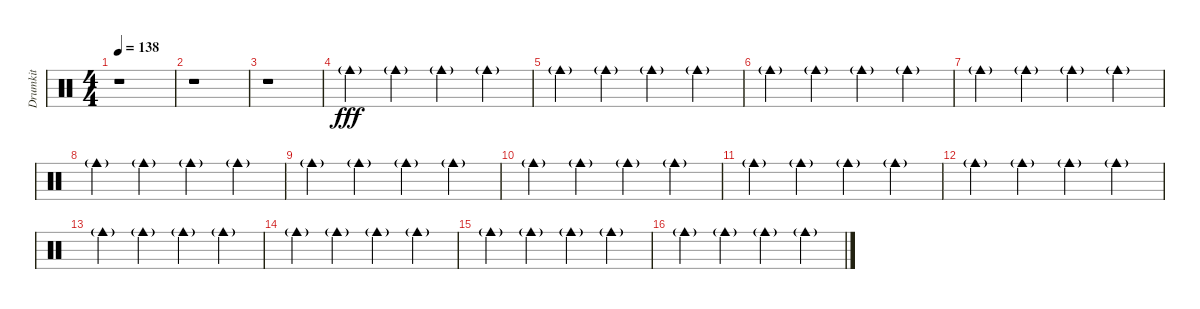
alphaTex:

\track ("Drumkit" "Drumkit") {instrument percussion}
\staff {score}
\articulation defaults
\ts (4 4)
\tempo 138
\clef neutral
\ks c
r.1{dy fff} |
r.1 |
r.1 |
"Cowbell medium (hit)"{g}.4 "Cowbell medium (hit)"{g}.4 "Cowbell medium (hit)"{g}.4 "Cowbell medium (hit)"{g}.4 |
"Cowbell medium (hit)"{g}.4 "Cowbell medium (hit)"{g}.4 "Cowbell medium (hit)"{g}.4 "Cowbell medium (hit)"{g}.4 |
"Cowbell medium (hit)"{g}.4 "Cowbell medium (hit)"{g}.4 "Cowbell medium (hit)"{g}.4 "Cowbell medium (hit)"{g}.4 |
"Cowbell medium (hit)"{g}.4 "Cowbell medium (hit)"{g}.4 "Cowbell medium (hit)"{g}.4 "Cowbell medium (hit)"{g}.4 |
"Cowbell medium (hit)"{g}.4 "Cowbell medium (hit)"{g}.4 "Cowbell medium (hit)"{g}.4 "Cowbell medium (hit)"{g}.4 |
"Cowbell medium (hit)"{g}.4 "Cowbell medium (hit)"{g}.4 "Cowbell medium (hit)"{g}.4 "Cowbell medium (hit)"{g}.4 |
"Cowbell medium (hit)"{g}.4 "Cowbell medium (hit)"{g}.4 "Cowbell medium (hit)"{g}.4 "Cowbell medium (hit)"{g}.4 |
"Cowbell medium (hit)"{g}.4 "Cowbell medium (hit)"{g}.4 "Cowbell medium (hit)"{g}.4 "Cowbell medium (hit)"{g}.4 |
"Cowbell medium (hit)"{g}.4 "Cowbell medium (hit)"{g}.4 "Cowbell medium (hit)"{g}.4 "Cowbell medium (hit)"{g}.4 |
"Cowbell medium (hit)"{g}.4 "Cowbell medium (hit)"{g}.4 "Cowbell medium (hit)"{g}.4 "Cowbell medium (hit)"{g}.4 |
"Cowbell medium (hit)"{g}.4 "Cowbell medium (hit)"{g}.4 "Cowbell medium (hit)"{g}.4 "Cowbell medium (hit)"{g}.4 |
"Cowbell medium (hit)"{g}.4 "Cowbell medium (hit)"{g}.4 "Cowbell medium (hit)"{g}.4 "Cowbell medium (hit)"{g}.4 |
"Cowbell medium (hit)"{g}.4 "Cowbell medium (hit)"{g}.4 "Cowbell medium (hit)"{g}.4 "Cowbell medium (hit)"{g}.4
